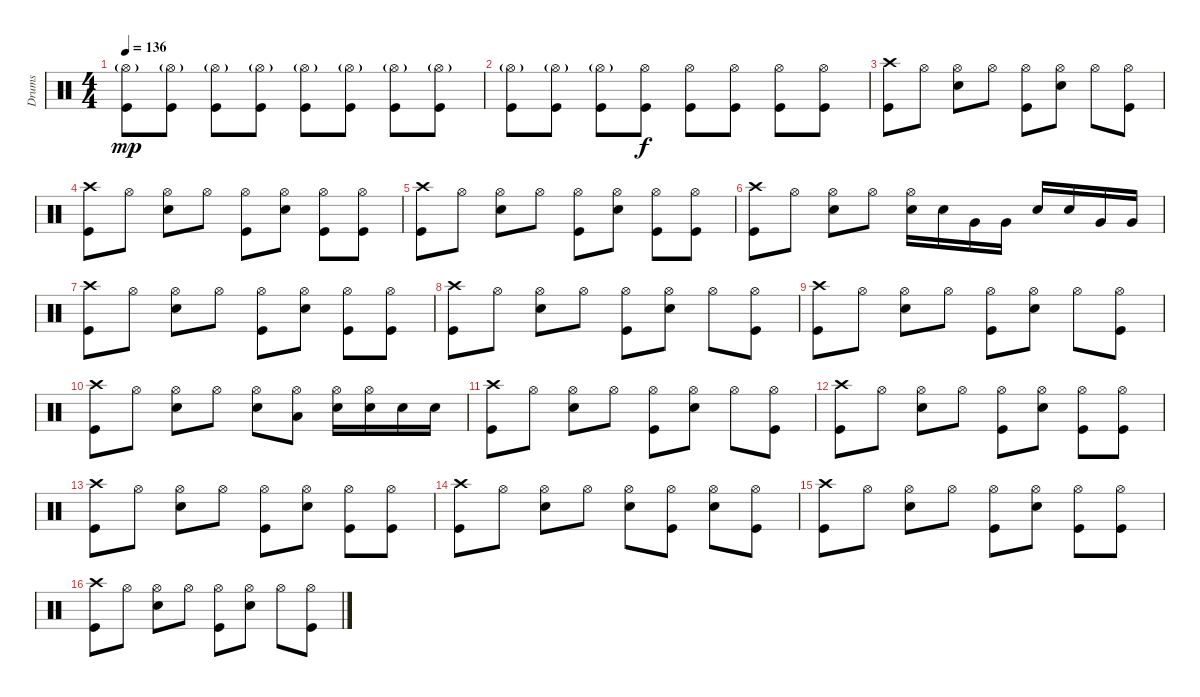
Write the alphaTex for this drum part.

\track ("Drums" "Drums") {instrument percussion}
\staff {score}
\articulation defaults
\ts (4 4)
\tempo 136
\clef neutral
\ks c
("Hi-Hat (open)"{g} "Kick (hit)").8{dy mp} ("Hi-Hat (open)"{g} "Kick (hit)").8 ("Hi-Hat (open)"{g} "Kick (hit)").8 ("Hi-Hat (open)"{g} "Kick (hit)").8 ("Hi-Hat (open)"{g} "Kick (hit)").8 ("Hi-Hat (open)"{g} "Kick (hit)").8 ("Hi-Hat (open)"{g} "Kick (hit)").8 ("Hi-Hat (open)"{g} "Kick (hit)").8 |
("Hi-Hat (open)"{g} "Kick (hit)").8 ("Hi-Hat (open)"{g} "Kick (hit)").8 ("Hi-Hat (open)"{g} "Kick (hit)").8 ("Hi-Hat (open)" "Kick (hit)").8{dy f} ("Hi-Hat (open)" "Kick (hit)").8 ("Hi-Hat (open)" "Kick (hit)").8 ("Hi-Hat (open)" "Kick (hit)").8 ("Hi-Hat (open)" "Kick (hit)").8 |
("Crash high (hit)" "Kick (hit)").8 "Hi-Hat (open)".8 ("Hi-Hat (open)" "Electric Snare (hit)").8 "Hi-Hat (open)".8 ("Hi-Hat (open)" "Kick (hit)").8 ("Hi-Hat (open)" "Electric Snare (hit)").8 "Hi-Hat (open)".8 ("Hi-Hat (open)" "Kick (hit)").8 |
("Crash high (hit)" "Kick (hit)").8 "Hi-Hat (open)".8 ("Hi-Hat (open)" "Electric Snare (hit)").8 "Hi-Hat (open)".8 ("Hi-Hat (open)" "Kick (hit)").8 ("Hi-Hat (open)" "Electric Snare (hit)").8 ("Hi-Hat (open)" "Kick (hit)").8 ("Hi-Hat (open)" "Kick (hit)").8 |
("Crash high (hit)" "Kick (hit)").8 "Hi-Hat (open)".8 ("Hi-Hat (open)" "Electric Snare (hit)").8 "Hi-Hat (open)".8 ("Hi-Hat (open)" "Kick (hit)").8 ("Hi-Hat (open)" "Electric Snare (hit)").8 ("Hi-Hat (open)" "Kick (hit)").8 ("Hi-Hat (open)" "Kick (hit)").8 |
("Crash high (hit)" "Kick (hit)").8 "Hi-Hat (open)".8 ("Hi-Hat (open)" "Electric Snare (hit)").8 "Hi-Hat (open)".8 ("Hi-Hat (open)" "Electric Snare (hit)").16 "Electric Snare (hit)".16 "Very Low Tom (hit)".16 "Very Low Tom (hit)".16 "Electric Snare (hit)".16 "Electric Snare (hit)".16 "Very Low Tom (hit)".16 "Very Low Tom (hit)".16 |
("Crash high (hit)" "Kick (hit)").8 "Hi-Hat (open)".8 ("Hi-Hat (open)" "Electric Snare (hit)").8 "Hi-Hat (open)".8 ("Hi-Hat (open)" "Kick (hit)").8 ("Hi-Hat (open)" "Electric Snare (hit)").8 ("Hi-Hat (open)" "Kick (hit)").8 ("Hi-Hat (open)" "Kick (hit)").8 |
("Crash high (hit)" "Kick (hit)").8 "Hi-Hat (open)".8 ("Hi-Hat (open)" "Electric Snare (hit)").8 "Hi-Hat (open)".8 ("Hi-Hat (open)" "Kick (hit)").8 ("Hi-Hat (open)" "Electric Snare (hit)").8 "Hi-Hat (open)".8 ("Hi-Hat (open)" "Kick (hit)").8 |
("Crash high (hit)" "Kick (hit)").8 "Hi-Hat (open)".8 ("Hi-Hat (open)" "Electric Snare (hit)").8 "Hi-Hat (open)".8 ("Hi-Hat (open)" "Kick (hit)").8 ("Hi-Hat (open)" "Electric Snare (hit)").8 "Hi-Hat (open)".8 ("Hi-Hat (open)" "Kick (hit)").8 |
("Crash high (hit)" "Kick (hit)").8 "Hi-Hat (open)".8 ("Hi-Hat (open)" "Electric Snare (hit)").8 "Hi-Hat (open)".8 ("Hi-Hat (open)" "Electric Snare (hit)").8 ("Hi-Hat (open)" "Low Tom (hit)").8 ("Hi-Hat (open)" "Electric Snare (hit)").16 ("Hi-Hat (open)" "Electric Snare (hit)").16 "Electric Snare (hit)".16 "Electric Snare (hit)".16 |
("Crash high (hit)" "Kick (hit)").8 "Hi-Hat (open)".8 ("Hi-Hat (open)" "Electric Snare (hit)").8 "Hi-Hat (open)".8 ("Hi-Hat (open)" "Kick (hit)").8 ("Hi-Hat (open)" "Electric Snare (hit)").8 "Hi-Hat (open)".8 ("Hi-Hat (open)" "Kick (hit)").8 |
("Crash high (hit)" "Kick (hit)").8 "Hi-Hat (open)".8 ("Hi-Hat (open)" "Electric Snare (hit)").8 "Hi-Hat (open)".8 ("Hi-Hat (open)" "Kick (hit)").8 ("Hi-Hat (open)" "Electric Snare (hit)").8 ("Hi-Hat (open)" "Kick (hit)").8 ("Hi-Hat (open)" "Kick (hit)").8 |
("Crash high (hit)" "Kick (hit)").8 "Hi-Hat (open)".8 ("Hi-Hat (open)" "Electric Snare (hit)").8 "Hi-Hat (open)".8 ("Hi-Hat (open)" "Kick (hit)").8 ("Hi-Hat (open)" "Electric Snare (hit)").8 ("Hi-Hat (open)" "Kick (hit)").8 ("Hi-Hat (open)" "Kick (hit)").8 |
("Crash high (hit)" "Kick (hit)").8 "Hi-Hat (open)".8 ("Hi-Hat (open)" "Electric Snare (hit)").8 "Hi-Hat (open)".8 ("Hi-Hat (open)" "Electric Snare (hit)").8 ("Hi-Hat (open)" "Kick (hit)").8 ("Hi-Hat (open)" "Electric Snare (hit)").8 ("Hi-Hat (open)" "Kick (hit)").8 |
("Crash high (hit)" "Kick (hit)").8 "Hi-Hat (open)".8 ("Hi-Hat (open)" "Electric Snare (hit)").8 "Hi-Hat (open)".8 ("Hi-Hat (open)" "Kick (hit)").8 ("Hi-Hat (open)" "Electric Snare (hit)").8 ("Hi-Hat (open)" "Kick (hit)").8 ("Hi-Hat (open)" "Kick (hit)").8 |
("Crash high (hit)" "Kick (hit)").8 "Hi-Hat (open)".8 ("Hi-Hat (open)" "Electric Snare (hit)").8 "Hi-Hat (open)".8 ("Hi-Hat (open)" "Kick (hit)").8 ("Hi-Hat (open)" "Electric Snare (hit)").8 "Hi-Hat (open)".8 ("Hi-Hat (open)" "Kick (hit)").8
